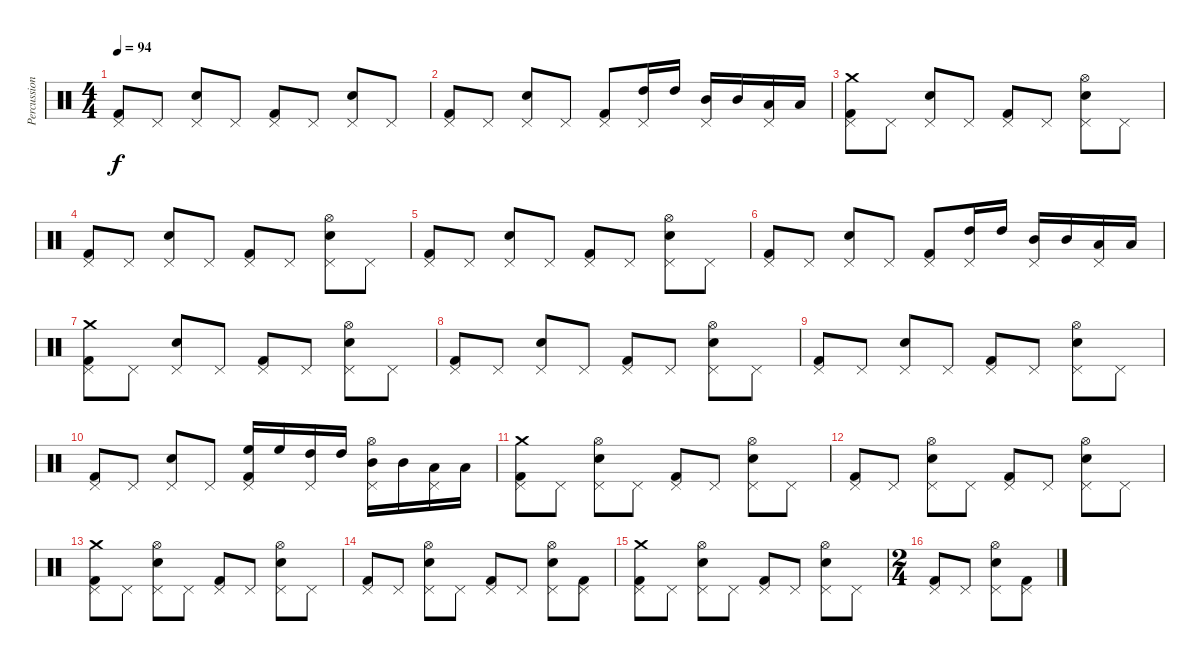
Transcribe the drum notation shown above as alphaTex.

\track ("Percussions" "Percussion") {instrument percussion}
\staff {score}
\articulation defaults
\ts (4 4)
\tempo 94
\clef neutral
\ks c
("Pedal Hi-Hat (hit)" "Kick (hit) 2").8{dy f} "Pedal Hi-Hat (hit)".8 ("Pedal Hi-Hat (hit)" "Electric Snare (hit)").8 "Pedal Hi-Hat (hit)".8 ("Pedal Hi-Hat (hit)" "Kick (hit) 2").8 "Pedal Hi-Hat (hit)".8 ("Pedal Hi-Hat (hit)" "Electric Snare (hit)").8 "Pedal Hi-Hat (hit)".8 |
("Pedal Hi-Hat (hit)" "Kick (hit) 2").8 "Pedal Hi-Hat (hit)".8 ("Pedal Hi-Hat (hit)" "Electric Snare (hit)").8 "Pedal Hi-Hat (hit)".8 ("Pedal Hi-Hat (hit)" "Kick (hit) 2").8 ("Pedal Hi-Hat (hit)" "High Tom (hit)").16 "High Tom (hit)".16 ("Pedal Hi-Hat (hit)" "Mid Tom (hit)").16 "Mid Tom (hit)".16 ("Pedal Hi-Hat (hit)" "Low Tom (hit)").16 "Low Tom (hit)".16 |
("Pedal Hi-Hat (hit)" "Crash medium (hit)" "Kick (hit) 2").8 "Pedal Hi-Hat (hit)".8 ("Pedal Hi-Hat (hit)" "Electric Snare (hit)").8 "Pedal Hi-Hat (hit)".8 ("Pedal Hi-Hat (hit)" "Kick (hit) 2").8 "Pedal Hi-Hat (hit)".8 ("Pedal Hi-Hat (hit)" "Electric Snare (hit)" "Hi-Hat (open)").8 "Pedal Hi-Hat (hit)".8 |
("Pedal Hi-Hat (hit)" "Kick (hit) 2").8 "Pedal Hi-Hat (hit)".8 ("Pedal Hi-Hat (hit)" "Electric Snare (hit)").8 "Pedal Hi-Hat (hit)".8 ("Pedal Hi-Hat (hit)" "Kick (hit) 2").8 "Pedal Hi-Hat (hit)".8 ("Pedal Hi-Hat (hit)" "Electric Snare (hit)" "Hi-Hat (open)").8 "Pedal Hi-Hat (hit)".8 |
("Pedal Hi-Hat (hit)" "Kick (hit) 2").8 "Pedal Hi-Hat (hit)".8 ("Pedal Hi-Hat (hit)" "Electric Snare (hit)").8 "Pedal Hi-Hat (hit)".8 ("Pedal Hi-Hat (hit)" "Kick (hit) 2").8 "Pedal Hi-Hat (hit)".8 ("Pedal Hi-Hat (hit)" "Electric Snare (hit)" "Hi-Hat (open)").8 "Pedal Hi-Hat (hit)".8 |
("Pedal Hi-Hat (hit)" "Kick (hit) 2").8 "Pedal Hi-Hat (hit)".8 ("Pedal Hi-Hat (hit)" "Electric Snare (hit)").8 "Pedal Hi-Hat (hit)".8 ("Pedal Hi-Hat (hit)" "Kick (hit) 2").8 ("Pedal Hi-Hat (hit)" "High Tom (hit)").16 "High Tom (hit)".16 ("Pedal Hi-Hat (hit)" "Mid Tom (hit)").16 "Mid Tom (hit)".16 ("Pedal Hi-Hat (hit)" "Low Tom (hit)").16 "Low Tom (hit)".16 |
("Pedal Hi-Hat (hit)" "Crash medium (hit)" "Kick (hit) 2").8 "Pedal Hi-Hat (hit)".8 ("Pedal Hi-Hat (hit)" "Electric Snare (hit)").8 "Pedal Hi-Hat (hit)".8 ("Pedal Hi-Hat (hit)" "Kick (hit) 2").8 "Pedal Hi-Hat (hit)".8 ("Pedal Hi-Hat (hit)" "Electric Snare (hit)" "Hi-Hat (open)").8 "Pedal Hi-Hat (hit)".8 |
("Pedal Hi-Hat (hit)" "Kick (hit) 2").8 "Pedal Hi-Hat (hit)".8 ("Pedal Hi-Hat (hit)" "Electric Snare (hit)").8 "Pedal Hi-Hat (hit)".8 ("Pedal Hi-Hat (hit)" "Kick (hit) 2").8 "Pedal Hi-Hat (hit)".8 ("Pedal Hi-Hat (hit)" "Electric Snare (hit)" "Hi-Hat (open)").8 "Pedal Hi-Hat (hit)".8 |
("Pedal Hi-Hat (hit)" "Kick (hit) 2").8 "Pedal Hi-Hat (hit)".8 ("Pedal Hi-Hat (hit)" "Electric Snare (hit)").8 "Pedal Hi-Hat (hit)".8 ("Pedal Hi-Hat (hit)" "Kick (hit) 2").8 "Pedal Hi-Hat (hit)".8 ("Pedal Hi-Hat (hit)" "Electric Snare (hit)" "Hi-Hat (open)").8 "Pedal Hi-Hat (hit)".8 |
("Pedal Hi-Hat (hit)" "Kick (hit) 2").8 "Pedal Hi-Hat (hit)".8 ("Pedal Hi-Hat (hit)" "Electric Snare (hit)").8 "Pedal Hi-Hat (hit)".8 ("Pedal Hi-Hat (hit)" "High Floor Tom (hit)" "Kick (hit) 2").16 "High Floor Tom (hit)".16 ("Pedal Hi-Hat (hit)" "High Tom (hit)").16 "High Tom (hit)".16 ("Pedal Hi-Hat (hit)" "Mid Tom (hit)" "Hi-Hat (open)").16 "Mid Tom (hit)".16 ("Pedal Hi-Hat (hit)" "Low Tom (hit)").16 "Low Tom (hit)".16 |
("Pedal Hi-Hat (hit)" "Crash medium (hit)" "Kick (hit) 2").8 "Pedal Hi-Hat (hit)".8 ("Pedal Hi-Hat (hit)" "Electric Snare (hit)" "Hi-Hat (open)").8 "Pedal Hi-Hat (hit)".8 ("Pedal Hi-Hat (hit)" "Kick (hit) 2").8 "Pedal Hi-Hat (hit)".8 ("Pedal Hi-Hat (hit)" "Electric Snare (hit)" "Hi-Hat (open)").8 "Pedal Hi-Hat (hit)".8 |
("Pedal Hi-Hat (hit)" "Kick (hit) 2").8 "Pedal Hi-Hat (hit)".8 ("Pedal Hi-Hat (hit)" "Electric Snare (hit)" "Hi-Hat (open)").8 "Pedal Hi-Hat (hit)".8 ("Pedal Hi-Hat (hit)" "Kick (hit) 2").8 "Pedal Hi-Hat (hit)".8 ("Pedal Hi-Hat (hit)" "Electric Snare (hit)" "Hi-Hat (open)").8 "Pedal Hi-Hat (hit)".8 |
("Pedal Hi-Hat (hit)" "Crash medium (hit)" "Kick (hit) 2").8 "Pedal Hi-Hat (hit)".8 ("Pedal Hi-Hat (hit)" "Electric Snare (hit)" "Hi-Hat (open)").8 "Pedal Hi-Hat (hit)".8 ("Pedal Hi-Hat (hit)" "Kick (hit) 2").8 "Pedal Hi-Hat (hit)".8 ("Pedal Hi-Hat (hit)" "Electric Snare (hit)" "Hi-Hat (open)").8 "Pedal Hi-Hat (hit)".8 |
("Pedal Hi-Hat (hit)" "Kick (hit) 2").8 "Pedal Hi-Hat (hit)".8 ("Pedal Hi-Hat (hit)" "Electric Snare (hit)" "Hi-Hat (open)").8 "Pedal Hi-Hat (hit)".8 ("Pedal Hi-Hat (hit)" "Kick (hit) 2").8 "Pedal Hi-Hat (hit)".8 ("Pedal Hi-Hat (hit)" "Electric Snare (hit)" "Hi-Hat (open)").8 ("Pedal Hi-Hat (hit)" "Kick (hit) 2").8 |
("Pedal Hi-Hat (hit)" "Crash medium (hit)" "Kick (hit) 2").8 "Pedal Hi-Hat (hit)".8 ("Pedal Hi-Hat (hit)" "Electric Snare (hit)" "Hi-Hat (open)").8 "Pedal Hi-Hat (hit)".8 ("Pedal Hi-Hat (hit)" "Kick (hit) 2").8 "Pedal Hi-Hat (hit)".8 ("Pedal Hi-Hat (hit)" "Electric Snare (hit)" "Hi-Hat (open)").8 "Pedal Hi-Hat (hit)".8 |
\ts (2 4)
("Pedal Hi-Hat (hit)" "Kick (hit) 2").8 "Pedal Hi-Hat (hit)".8 ("Pedal Hi-Hat (hit)" "Electric Snare (hit)" "Hi-Hat (open)").8 ("Pedal Hi-Hat (hit)" "Kick (hit) 2").8
